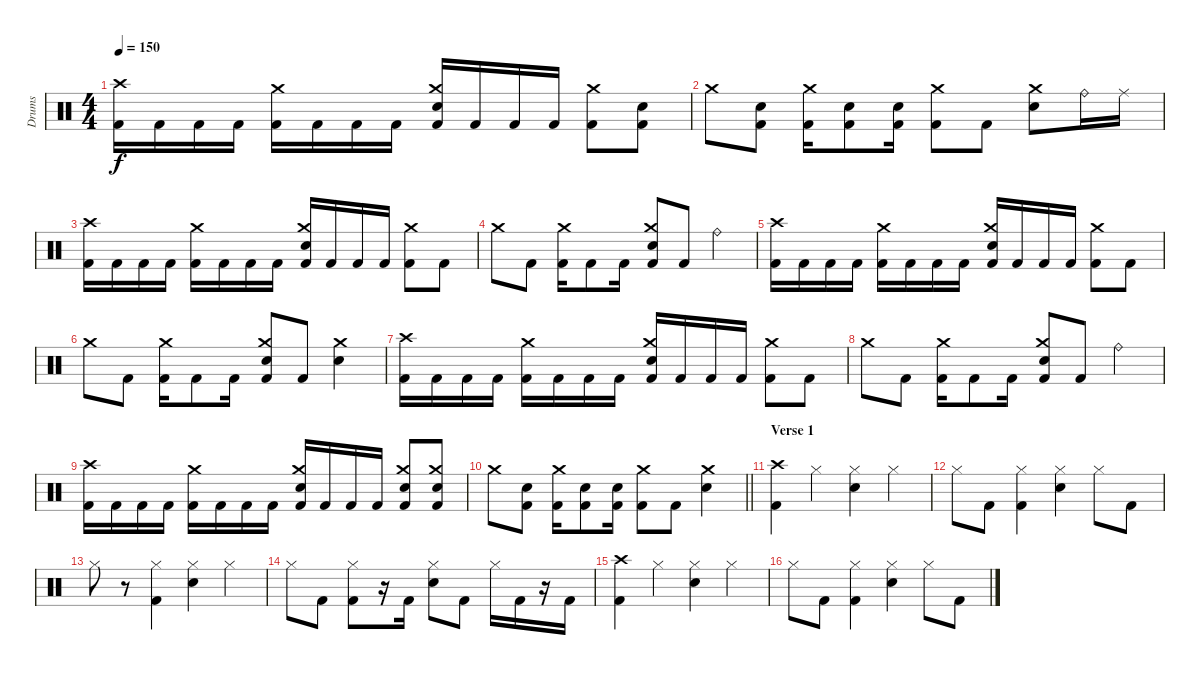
\track ("Drums" "Drums") {instrument percussion}
\staff {score}
\articulation defaults
\ts (4 4)
\tempo 150
\clef neutral
\ks c
("Crash high (hit)" "Kick (hit) 2").16{dy f} "Kick (hit) 2".16 "Kick (hit) 2".16 "Kick (hit) 2".16 ("Crash medium (hit)" "Kick (hit) 2").16 "Kick (hit) 2".16 "Kick (hit) 2".16 "Kick (hit) 2".16 ("Crash medium (hit)" "Snare (hit) 2" "Kick (hit) 2").16 "Kick (hit) 2".16 "Kick (hit) 2".16 "Kick (hit) 2".16 ("Crash medium (hit)" "Kick (hit) 2").8 ("Snare (hit) 2" "Kick (hit) 2").8 |
"Crash medium (hit)".8 ("Snare (hit) 2" "Kick (hit) 2").8 ("Crash medium (hit)" "Kick (hit) 2").16 ("Snare (hit) 2" "Kick (hit) 2").8 ("Snare (hit) 2" "Kick (hit) 2").16 ("Crash medium (hit)" "Kick (hit) 2").8 "Kick (hit) 2".8 ("Crash medium (hit)" "Snare (hit) 2").8 "Ride (bell)".16 "Ride (middle)".16 |
("Crash high (hit)" "Kick (hit) 2").16 "Kick (hit) 2".16 "Kick (hit) 2".16 "Kick (hit) 2".16 ("Crash medium (hit)" "Kick (hit) 2").16 "Kick (hit) 2".16 "Kick (hit) 2".16 "Kick (hit) 2".16 ("Crash medium (hit)" "Snare (hit) 2" "Kick (hit) 2").16 "Kick (hit) 2".16 "Kick (hit) 2".16 "Kick (hit) 2".16 ("Crash medium (hit)" "Kick (hit) 2").8 "Kick (hit) 2".8 |
"Crash medium (hit)".8 "Kick (hit) 2".8 ("Crash medium (hit)" "Kick (hit) 2").16 "Kick (hit) 2".8 "Kick (hit) 2".16 ("Crash medium (hit)" "Snare (hit) 2" "Kick (hit) 2").8 "Kick (hit) 2".8 "Ride (bell)".4 |
("Crash high (hit)" "Kick (hit) 2").16 "Kick (hit) 2".16 "Kick (hit) 2".16 "Kick (hit) 2".16 ("Crash medium (hit)" "Kick (hit) 2").16 "Kick (hit) 2".16 "Kick (hit) 2".16 "Kick (hit) 2".16 ("Crash medium (hit)" "Snare (hit) 2" "Kick (hit) 2").16 "Kick (hit) 2".16 "Kick (hit) 2".16 "Kick (hit) 2".16 ("Crash medium (hit)" "Kick (hit) 2").8 "Kick (hit) 2".8 |
"Crash medium (hit)".8 "Kick (hit) 2".8 ("Crash medium (hit)" "Kick (hit) 2").16 "Kick (hit) 2".8 "Kick (hit) 2".16 ("Crash medium (hit)" "Snare (hit) 2" "Kick (hit) 2").8 "Kick (hit) 2".8 ("Crash medium (hit)" "Snare (hit) 2").4 |
("Crash high (hit)" "Kick (hit) 2").16 "Kick (hit) 2".16 "Kick (hit) 2".16 "Kick (hit) 2".16 ("Crash medium (hit)" "Kick (hit) 2").16 "Kick (hit) 2".16 "Kick (hit) 2".16 "Kick (hit) 2".16 ("Crash medium (hit)" "Snare (hit) 2" "Kick (hit) 2").16 "Kick (hit) 2".16 "Kick (hit) 2".16 "Kick (hit) 2".16 ("Crash medium (hit)" "Kick (hit) 2").8 "Kick (hit) 2".8 |
"Crash medium (hit)".8 "Kick (hit) 2".8 ("Crash medium (hit)" "Kick (hit) 2").16 "Kick (hit) 2".8 "Kick (hit) 2".16 ("Crash medium (hit)" "Snare (hit) 2" "Kick (hit) 2").8 "Kick (hit) 2".8 "Ride (bell)".4 |
("Crash high (hit)" "Kick (hit) 2").16 "Kick (hit) 2".16 "Kick (hit) 2".16 "Kick (hit) 2".16 ("Crash medium (hit)" "Kick (hit) 2").16 "Kick (hit) 2".16 "Kick (hit) 2".16 "Kick (hit) 2".16 ("Crash medium (hit)" "Snare (hit) 2" "Kick (hit) 2").16 "Kick (hit) 2".16 "Kick (hit) 2".16 "Kick (hit) 2".16 ("Crash medium (hit)" "Snare (hit) 2" "Kick (hit) 2").8 ("Crash medium (hit)" "Snare (hit) 2" "Kick (hit) 2").8 |
\barLineRight lightlight "Crash medium (hit)".8
("Snare (hit) 2" "Kick (hit) 2").8 ("Crash medium (hit)" "Kick (hit) 2").16 ("Snare (hit) 2" "Kick (hit) 2").8 ("Snare (hit) 2" "Kick (hit) 2").16 ("Crash medium (hit)" "Kick (hit) 2").8 "Kick (hit) 2".8 ("Crash medium (hit)" "Snare (hit) 2").4 |
\section ("" "Verse 1")
("Crash high (hit)" "Kick (hit) 2").4 "Hi-Hat (closed)".4 ("Hi-Hat (closed)" "Snare (hit) 2").4 "Hi-Hat (closed)".4 |
"Hi-Hat (closed)".8 "Kick (hit) 2".8 ("Hi-Hat (closed)" "Kick (hit) 2").4 ("Hi-Hat (closed)" "Snare (hit) 2").4 "Hi-Hat (closed)".8 "Kick (hit) 2".8 |
"Hi-Hat (closed)".8 r.8 ("Hi-Hat (closed)" "Kick (hit) 2").4 ("Hi-Hat (closed)" "Snare (hit) 2").4 "Hi-Hat (closed)".4 |
"Hi-Hat (closed)".8 "Kick (hit) 2".8 ("Hi-Hat (closed)" "Kick (hit) 2").8 r.16 "Kick (hit) 2".16 ("Hi-Hat (closed)" "Snare (hit) 2").8 "Kick (hit) 2".8 "Hi-Hat (closed)".16 "Kick (hit) 2".16 r.16 "Kick (hit) 2".16 |
("Crash high (hit)" "Kick (hit) 2").4 "Hi-Hat (closed)".4 ("Hi-Hat (closed)" "Snare (hit) 2").4 "Hi-Hat (closed)".4 |
"Hi-Hat (closed)".8 "Kick (hit) 2".8 ("Hi-Hat (closed)" "Kick (hit) 2").4 ("Hi-Hat (closed)" "Snare (hit) 2").4 "Hi-Hat (closed)".8 "Kick (hit) 2".8
